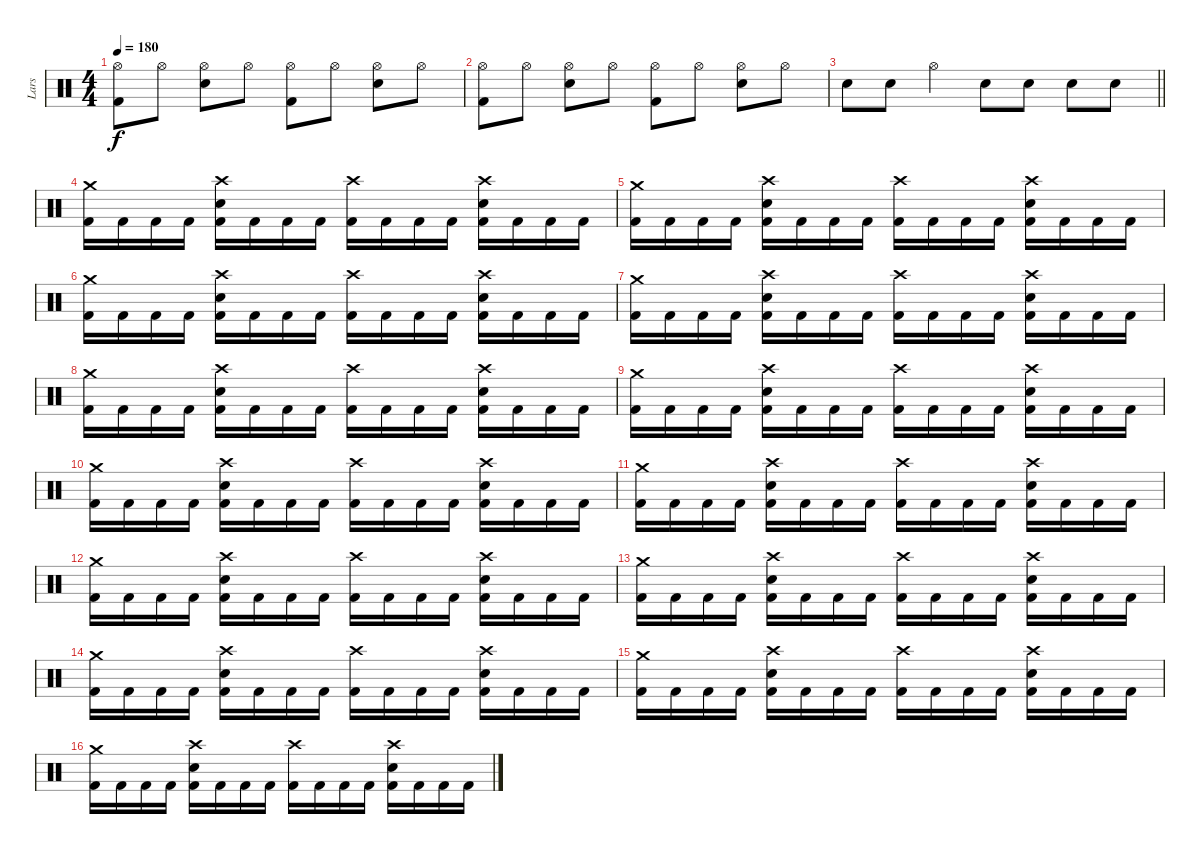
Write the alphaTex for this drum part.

\track ("Lars" "Lars") {instrument percussion}
\staff {score}
\articulation defaults
\ts (4 4)
\tempo 180
\clef neutral
\ks c
("Hi-Hat (open)" "Kick (hit) 2").8{dy f} "Hi-Hat (open)".8 ("Hi-Hat (open)" "Snare (hit) 2").8 "Hi-Hat (open)".8 ("Hi-Hat (open)" "Kick (hit) 2").8 "Hi-Hat (open)".8 ("Hi-Hat (open)" "Snare (hit) 2").8 "Hi-Hat (open)".8 |
("Hi-Hat (open)" "Kick (hit) 2").8 "Hi-Hat (open)".8 ("Hi-Hat (open)" "Snare (hit) 2").8 "Hi-Hat (open)".8 ("Hi-Hat (open)" "Kick (hit) 2").8 "Hi-Hat (open)".8 ("Hi-Hat (open)" "Snare (hit) 2").8 "Hi-Hat (open)".8 |
\barLineRight lightlight "Snare (hit) 2".8 "Snare (hit) 2".8 "Hi-Hat (open)".4 "Snare (hit) 2".8 "Snare (hit) 2".8 "Snare (hit) 2".8 "Snare (hit) 2".8
|
\section ("" "")
("Crash medium (hit)" "Kick (hit) 2").16 "Kick (hit) 2".16 "Kick (hit) 2".16 "Kick (hit) 2".16 ("Crash high (hit)" "Snare (hit) 2" "Kick (hit) 2").16 "Kick (hit) 2".16 "Kick (hit) 2".16 "Kick (hit) 2".16 ("Crash high (hit)" "Kick (hit) 2").16 "Kick (hit) 2".16 "Kick (hit) 2".16 "Kick (hit) 2".16 ("Crash high (hit)" "Snare (hit) 2" "Kick (hit) 2").16 "Kick (hit) 2".16 "Kick (hit) 2".16 "Kick (hit) 2".16 |
("Crash medium (hit)" "Kick (hit) 2").16 "Kick (hit) 2".16 "Kick (hit) 2".16 "Kick (hit) 2".16 ("Crash high (hit)" "Snare (hit) 2" "Kick (hit) 2").16 "Kick (hit) 2".16 "Kick (hit) 2".16 "Kick (hit) 2".16 ("Crash high (hit)" "Kick (hit) 2").16 "Kick (hit) 2".16 "Kick (hit) 2".16 "Kick (hit) 2".16 ("Crash high (hit)" "Snare (hit) 2" "Kick (hit) 2").16 "Kick (hit) 2".16 "Kick (hit) 2".16 "Kick (hit) 2".16 |
("Crash medium (hit)" "Kick (hit) 2").16 "Kick (hit) 2".16 "Kick (hit) 2".16 "Kick (hit) 2".16 ("Crash high (hit)" "Snare (hit) 2" "Kick (hit) 2").16 "Kick (hit) 2".16 "Kick (hit) 2".16 "Kick (hit) 2".16 ("Crash high (hit)" "Kick (hit) 2").16 "Kick (hit) 2".16 "Kick (hit) 2".16 "Kick (hit) 2".16 ("Crash high (hit)" "Snare (hit) 2" "Kick (hit) 2").16 "Kick (hit) 2".16 "Kick (hit) 2".16 "Kick (hit) 2".16 |
("Crash medium (hit)" "Kick (hit) 2").16 "Kick (hit) 2".16 "Kick (hit) 2".16 "Kick (hit) 2".16 ("Crash high (hit)" "Snare (hit) 2" "Kick (hit) 2").16 "Kick (hit) 2".16 "Kick (hit) 2".16 "Kick (hit) 2".16 ("Crash high (hit)" "Kick (hit) 2").16 "Kick (hit) 2".16 "Kick (hit) 2".16 "Kick (hit) 2".16 ("Crash high (hit)" "Snare (hit) 2" "Kick (hit) 2").16 "Kick (hit) 2".16 "Kick (hit) 2".16 "Kick (hit) 2".16 |
("Crash medium (hit)" "Kick (hit) 2").16 "Kick (hit) 2".16 "Kick (hit) 2".16 "Kick (hit) 2".16 ("Crash high (hit)" "Snare (hit) 2" "Kick (hit) 2").16 "Kick (hit) 2".16 "Kick (hit) 2".16 "Kick (hit) 2".16 ("Crash high (hit)" "Kick (hit) 2").16 "Kick (hit) 2".16 "Kick (hit) 2".16 "Kick (hit) 2".16 ("Crash high (hit)" "Snare (hit) 2" "Kick (hit) 2").16 "Kick (hit) 2".16 "Kick (hit) 2".16 "Kick (hit) 2".16 |
("Crash medium (hit)" "Kick (hit) 2").16 "Kick (hit) 2".16 "Kick (hit) 2".16 "Kick (hit) 2".16 ("Crash high (hit)" "Snare (hit) 2" "Kick (hit) 2").16 "Kick (hit) 2".16 "Kick (hit) 2".16 "Kick (hit) 2".16 ("Crash high (hit)" "Kick (hit) 2").16 "Kick (hit) 2".16 "Kick (hit) 2".16 "Kick (hit) 2".16 ("Crash high (hit)" "Snare (hit) 2" "Kick (hit) 2").16 "Kick (hit) 2".16 "Kick (hit) 2".16 "Kick (hit) 2".16 |
("Crash medium (hit)" "Kick (hit) 2").16 "Kick (hit) 2".16 "Kick (hit) 2".16 "Kick (hit) 2".16 ("Crash high (hit)" "Snare (hit) 2" "Kick (hit) 2").16 "Kick (hit) 2".16 "Kick (hit) 2".16 "Kick (hit) 2".16 ("Crash high (hit)" "Kick (hit) 2").16 "Kick (hit) 2".16 "Kick (hit) 2".16 "Kick (hit) 2".16 ("Crash high (hit)" "Snare (hit) 2" "Kick (hit) 2").16 "Kick (hit) 2".16 "Kick (hit) 2".16 "Kick (hit) 2".16 |
("Crash medium (hit)" "Kick (hit) 2").16 "Kick (hit) 2".16 "Kick (hit) 2".16 "Kick (hit) 2".16 ("Crash high (hit)" "Snare (hit) 2" "Kick (hit) 2").16 "Kick (hit) 2".16 "Kick (hit) 2".16 "Kick (hit) 2".16 ("Crash high (hit)" "Kick (hit) 2").16 "Kick (hit) 2".16 "Kick (hit) 2".16 "Kick (hit) 2".16 ("Crash high (hit)" "Snare (hit) 2" "Kick (hit) 2").16 "Kick (hit) 2".16 "Kick (hit) 2".16 "Kick (hit) 2".16 |
("Crash medium (hit)" "Kick (hit) 2").16 "Kick (hit) 2".16 "Kick (hit) 2".16 "Kick (hit) 2".16 ("Crash high (hit)" "Snare (hit) 2" "Kick (hit) 2").16 "Kick (hit) 2".16 "Kick (hit) 2".16 "Kick (hit) 2".16 ("Crash high (hit)" "Kick (hit) 2").16 "Kick (hit) 2".16 "Kick (hit) 2".16 "Kick (hit) 2".16 ("Crash high (hit)" "Snare (hit) 2" "Kick (hit) 2").16 "Kick (hit) 2".16 "Kick (hit) 2".16 "Kick (hit) 2".16 |
("Crash medium (hit)" "Kick (hit) 2").16 "Kick (hit) 2".16 "Kick (hit) 2".16 "Kick (hit) 2".16 ("Crash high (hit)" "Snare (hit) 2" "Kick (hit) 2").16 "Kick (hit) 2".16 "Kick (hit) 2".16 "Kick (hit) 2".16 ("Crash high (hit)" "Kick (hit) 2").16 "Kick (hit) 2".16 "Kick (hit) 2".16 "Kick (hit) 2".16 ("Crash high (hit)" "Snare (hit) 2" "Kick (hit) 2").16 "Kick (hit) 2".16 "Kick (hit) 2".16 "Kick (hit) 2".16 |
("Crash medium (hit)" "Kick (hit) 2").16 "Kick (hit) 2".16 "Kick (hit) 2".16 "Kick (hit) 2".16 ("Crash high (hit)" "Snare (hit) 2" "Kick (hit) 2").16 "Kick (hit) 2".16 "Kick (hit) 2".16 "Kick (hit) 2".16 ("Crash high (hit)" "Kick (hit) 2").16 "Kick (hit) 2".16 "Kick (hit) 2".16 "Kick (hit) 2".16 ("Crash high (hit)" "Snare (hit) 2" "Kick (hit) 2").16 "Kick (hit) 2".16 "Kick (hit) 2".16 "Kick (hit) 2".16 |
("Crash medium (hit)" "Kick (hit) 2").16 "Kick (hit) 2".16 "Kick (hit) 2".16 "Kick (hit) 2".16 ("Crash high (hit)" "Snare (hit) 2" "Kick (hit) 2").16 "Kick (hit) 2".16 "Kick (hit) 2".16 "Kick (hit) 2".16 ("Crash high (hit)" "Kick (hit) 2").16 "Kick (hit) 2".16 "Kick (hit) 2".16 "Kick (hit) 2".16 ("Crash high (hit)" "Snare (hit) 2" "Kick (hit) 2").16 "Kick (hit) 2".16 "Kick (hit) 2".16 "Kick (hit) 2".16 |
("Crash medium (hit)" "Kick (hit) 2").16 "Kick (hit) 2".16 "Kick (hit) 2".16 "Kick (hit) 2".16 ("Crash high (hit)" "Snare (hit) 2" "Kick (hit) 2").16 "Kick (hit) 2".16 "Kick (hit) 2".16 "Kick (hit) 2".16 ("Crash high (hit)" "Kick (hit) 2").16 "Kick (hit) 2".16 "Kick (hit) 2".16 "Kick (hit) 2".16 ("Crash high (hit)" "Snare (hit) 2" "Kick (hit) 2").16 "Kick (hit) 2".16 "Kick (hit) 2".16 "Kick (hit) 2".16
